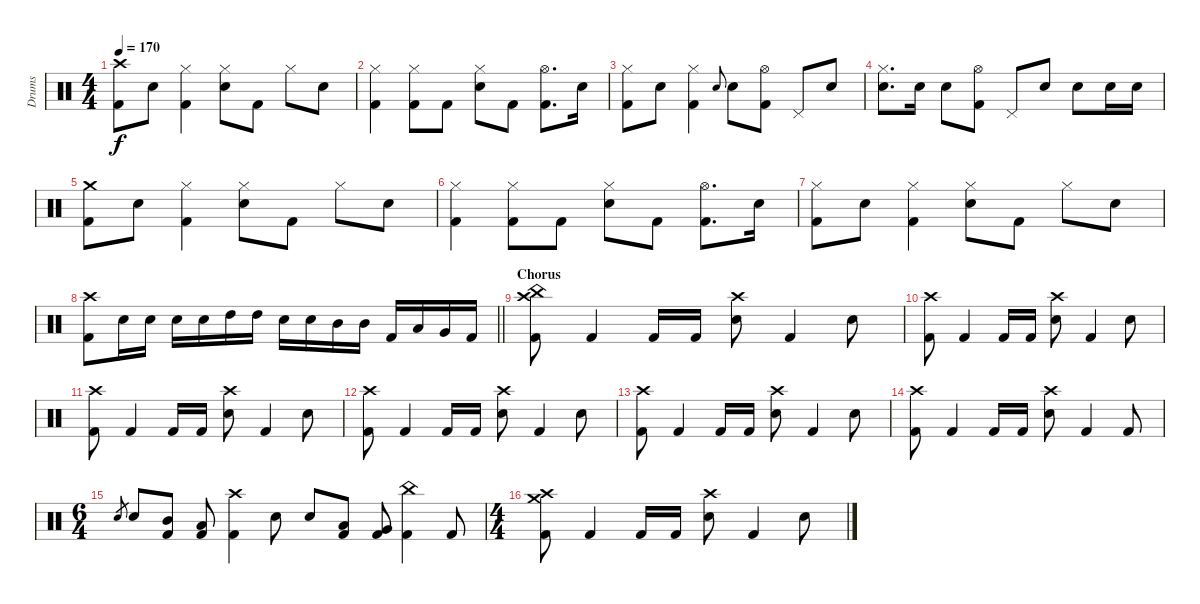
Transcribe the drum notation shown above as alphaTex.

\track ("Drums" "Drums") {instrument percussion}
\staff {score}
\articulation defaults
\ts (4 4)
\tempo 170
\clef neutral
\ks c
("Crash high (hit)" "Kick (hit) 2").8{dy f} "Electric Snare (hit)".8 ("Hi-Hat (closed)" "Kick (hit) 2").4 ("Hi-Hat (closed)" "Electric Snare (hit)").8 "Kick (hit) 2".8 "Hi-Hat (closed)".8 "Electric Snare (hit)".8 |
("Hi-Hat (closed)" "Kick (hit) 2").4 ("Hi-Hat (closed)" "Kick (hit) 2").8 "Kick (hit) 2".8 ("Hi-Hat (closed)" "Electric Snare (hit)").8 "Kick (hit) 2".8 ("Hi-Hat (open)" "Kick (hit) 2").8{d} "Electric Snare (hit)".16 |
("Hi-Hat (closed)" "Kick (hit) 2").8 "Electric Snare (hit)".8 ("Hi-Hat (closed)" "Kick (hit) 2").4 "Electric Snare (hit)".8{gr onbeat} "Electric Snare (hit)".8 ("Hi-Hat (open)" "Kick (hit) 2").8 "Pedal Hi-Hat (hit)".8 "Electric Snare (hit)".8 |
("Hi-Hat (closed)" "Electric Snare (hit)").8{d} "Electric Snare (hit)".16 "Electric Snare (hit)".8 ("Hi-Hat (open)" "Kick (hit) 2").8 "Pedal Hi-Hat (hit)".8 "Electric Snare (hit)".8 "Electric Snare (hit)".8 "Electric Snare (hit)".16 "Electric Snare (hit)".16 |
("Crash medium (hit)" "Kick (hit) 2").8 "Electric Snare (hit)".8 ("Hi-Hat (closed)" "Kick (hit) 2").4 ("Hi-Hat (closed)" "Electric Snare (hit)").8 "Kick (hit) 2".8 "Hi-Hat (closed)".8 "Electric Snare (hit)".8 |
("Hi-Hat (closed)" "Kick (hit) 2").4 ("Hi-Hat (closed)" "Kick (hit) 2").8 "Kick (hit) 2".8 ("Hi-Hat (closed)" "Electric Snare (hit)").8 "Kick (hit) 2".8 ("Hi-Hat (open)" "Kick (hit) 2").8{d} "Electric Snare (hit)".16 |
("Hi-Hat (closed)" "Kick (hit) 2").8 "Electric Snare (hit)".8 ("Hi-Hat (closed)" "Kick (hit) 2").4 ("Hi-Hat (closed)" "Electric Snare (hit)").8 "Kick (hit) 2".8 "Hi-Hat (closed)".8 "Electric Snare (hit)".8 |
\barLineRight lightlight
("Crash high (hit)" "Kick (hit) 2").8 "Electric Snare (hit)".16 "Electric Snare (hit)".16 "Electric Snare (hit)".16 "Electric Snare (hit)".16 "High Tom (hit)".16 "High Tom (hit)".16 "Electric Snare (hit)".16 "Electric Snare (hit)".16 "Mid Tom (hit)".16 "Mid Tom (hit)".16 "Kick (hit) 2".16 "Low Tom (hit)".16 "Very Low Tom (hit)".16 "Kick (hit) 2".16 |
\section ("" "Chorus")
("Crash high (hit)" "China (hit)" "Kick (hit) 2").8 "Kick (hit) 2".4 "Kick (hit) 2".16 "Kick (hit) 2".16 ("Crash high (hit)" "Electric Snare (hit)").8 "Kick (hit) 2".4 "Electric Snare (hit)".8 |
("Crash high (hit)" "Kick (hit) 2").8 "Kick (hit) 2".4 "Kick (hit) 2".16 "Kick (hit) 2".16 ("Crash high (hit)" "Electric Snare (hit)").8 "Kick (hit) 2".4 "Electric Snare (hit)".8 |
("Crash high (hit)" "Kick (hit) 2").8 "Kick (hit) 2".4 "Kick (hit) 2".16 "Kick (hit) 2".16 ("Crash high (hit)" "Electric Snare (hit)").8 "Kick (hit) 2".4 "Electric Snare (hit)".8 |
("Crash high (hit)" "Kick (hit) 2").8 "Kick (hit) 2".4 "Kick (hit) 2".16 "Kick (hit) 2".16 ("Crash high (hit)" "Electric Snare (hit)").8 "Kick (hit) 2".4 "Electric Snare (hit)".8 |
("Crash high (hit)" "Kick (hit) 2").8 "Kick (hit) 2".4 "Kick (hit) 2".16 "Kick (hit) 2".16 ("Crash high (hit)" "Electric Snare (hit)").8 "Kick (hit) 2".4 "Electric Snare (hit)".8 |
("Crash high (hit)" "Kick (hit) 2").8 "Kick (hit) 2".4 "Kick (hit) 2".16 "Kick (hit) 2".16 ("Crash high (hit)" "Electric Snare (hit)").8 "Kick (hit) 2".4 "Kick (hit) 2".8 |
\ts (6 4)
"Electric Snare (hit)".8{gr} "Electric Snare (hit)".8 ("Mid Tom (hit)" "Kick (hit) 2").8 ("Low Tom (hit)" "Kick (hit) 2").8 ("Crash high (hit)" "Kick (hit) 2").4 "Electric Snare (hit)".8 "Electric Snare (hit)".8 ("Low Tom (hit)" "Kick (hit) 2").8 ("Very Low Tom (hit)" "Kick (hit) 2").8 ("China (hit)" "Kick (hit) 2").4 "Kick (hit) 2".8 |
\ts (4 4)
("Crash high (hit)" "Crash medium (hit)" "Kick (hit) 2").8 "Kick (hit) 2".4 "Kick (hit) 2".16 "Kick (hit) 2".16 ("Crash high (hit)" "Electric Snare (hit)").8 "Kick (hit) 2".4 "Electric Snare (hit)".8
